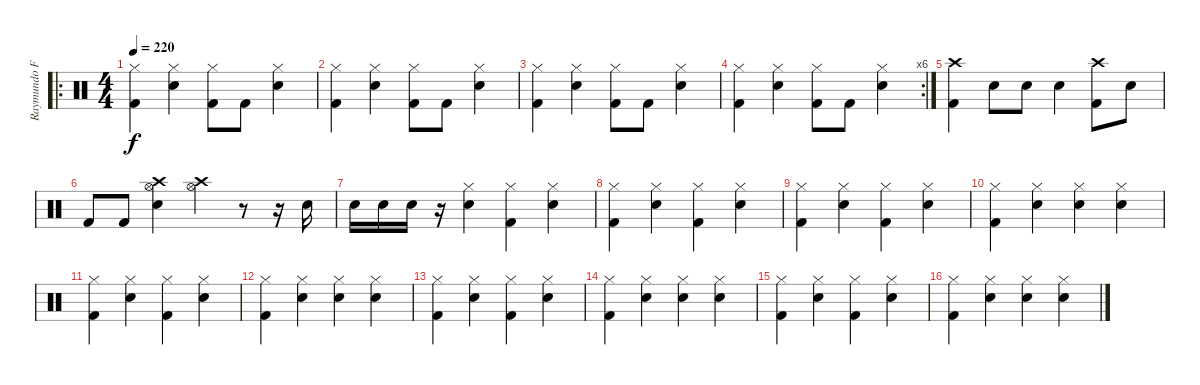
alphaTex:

\track ("Raymundo Fajaro" "Raymundo F") {instrument percussion}
\staff {score}
\articulation defaults
\ro
\ts (4 4)
\tempo 220
\clef neutral
\ks c
("Kick (hit) 2" "Hi-Hat (closed)").4{dy f} ("Electric Snare (hit)" "Hi-Hat (closed)").4 ("Kick (hit) 2" "Hi-Hat (closed)").8 "Kick (hit) 2".8 ("Electric Snare (hit)" "Hi-Hat (closed)").4 |
("Kick (hit) 2" "Hi-Hat (closed)").4 ("Electric Snare (hit)" "Hi-Hat (closed)").4 ("Kick (hit) 2" "Hi-Hat (closed)").8 "Kick (hit) 2".8 ("Electric Snare (hit)" "Hi-Hat (closed)").4 |
("Kick (hit) 2" "Hi-Hat (closed)").4 ("Electric Snare (hit)" "Hi-Hat (closed)").4 ("Kick (hit) 2" "Hi-Hat (closed)").8 "Kick (hit) 2".8 ("Electric Snare (hit)" "Hi-Hat (closed)").4 |
\rc 6
("Kick (hit) 2" "Hi-Hat (closed)").4 ("Electric Snare (hit)" "Hi-Hat (closed)").4 ("Kick (hit) 2" "Hi-Hat (closed)").8 "Kick (hit) 2".8 ("Electric Snare (hit)" "Hi-Hat (closed)").4 |
("Kick (hit) 2" "Crash high (hit)").4 "Electric Snare (hit)".8 "Electric Snare (hit)".8 "Electric Snare (hit)".4 ("Kick (hit) 2" "Crash high (hit)").8 "Electric Snare (hit)".8 |
"Kick (hit) 2".8 "Kick (hit) 2".8 ("Electric Snare (hit)" "Crash high (hit)" "Hi-Hat (open)").4 ("Crash high (hit)" "Hi-Hat (open)").4 r.8 r.16 "Electric Snare (hit)".16 |
"Electric Snare (hit)".16 "Electric Snare (hit)".16 "Electric Snare (hit)".16 r.16 ("Electric Snare (hit)" "Hi-Hat (closed)").4 ("Kick (hit) 2" "Hi-Hat (closed)").4 ("Electric Snare (hit)" "Hi-Hat (closed)").4 |
("Kick (hit) 2" "Hi-Hat (closed)").4 ("Electric Snare (hit)" "Hi-Hat (closed)").4 ("Kick (hit) 2" "Hi-Hat (closed)").4 ("Electric Snare (hit)" "Hi-Hat (closed)").4 |
("Kick (hit) 2" "Hi-Hat (closed)").4 ("Electric Snare (hit)" "Hi-Hat (closed)").4 ("Kick (hit) 2" "Hi-Hat (closed)").4 ("Electric Snare (hit)" "Hi-Hat (closed)").4 |
("Kick (hit) 2" "Hi-Hat (closed)").4 ("Electric Snare (hit)" "Hi-Hat (closed)").4 ("Electric Snare (hit)" "Hi-Hat (closed)").4 ("Electric Snare (hit)" "Hi-Hat (closed)").4 |
("Kick (hit) 2" "Hi-Hat (closed)").4 ("Electric Snare (hit)" "Hi-Hat (closed)").4 ("Kick (hit) 2" "Hi-Hat (closed)").4 ("Electric Snare (hit)" "Hi-Hat (closed)").4 |
("Kick (hit) 2" "Hi-Hat (closed)").4 ("Electric Snare (hit)" "Hi-Hat (closed)").4 ("Electric Snare (hit)" "Hi-Hat (closed)").4 ("Electric Snare (hit)" "Hi-Hat (closed)").4 |
("Kick (hit) 2" "Hi-Hat (closed)").4 ("Electric Snare (hit)" "Hi-Hat (closed)").4 ("Kick (hit) 2" "Hi-Hat (closed)").4 ("Electric Snare (hit)" "Hi-Hat (closed)").4 |
("Kick (hit) 2" "Hi-Hat (closed)").4 ("Electric Snare (hit)" "Hi-Hat (closed)").4 ("Electric Snare (hit)" "Hi-Hat (closed)").4 ("Electric Snare (hit)" "Hi-Hat (closed)").4 |
("Kick (hit) 2" "Hi-Hat (closed)").4 ("Electric Snare (hit)" "Hi-Hat (closed)").4 ("Kick (hit) 2" "Hi-Hat (closed)").4 ("Electric Snare (hit)" "Hi-Hat (closed)").4 |
("Kick (hit) 2" "Hi-Hat (closed)").4 ("Electric Snare (hit)" "Hi-Hat (closed)").4 ("Electric Snare (hit)" "Hi-Hat (closed)").4 ("Electric Snare (hit)" "Hi-Hat (closed)").4
